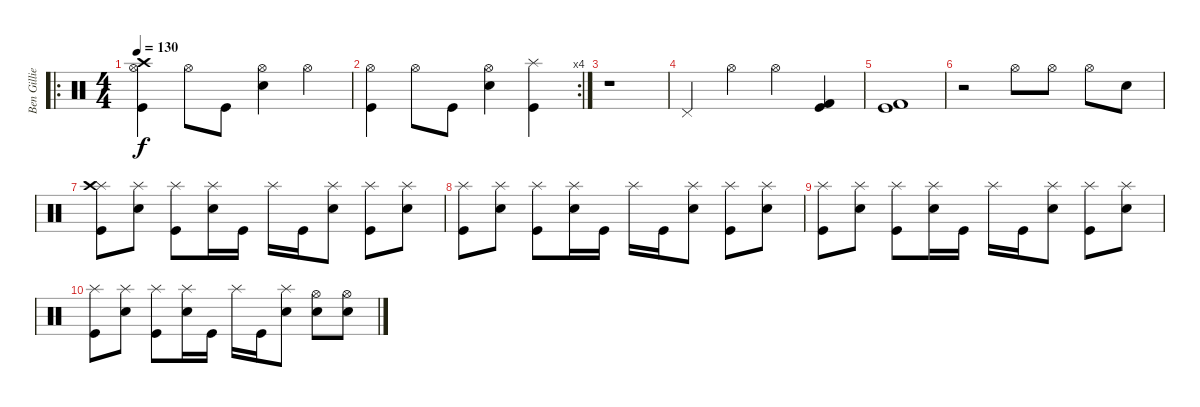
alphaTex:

\track ("Ben Gillies (Drums)" "Ben Gillie") {instrument percussion}
\staff {score}
\articulation defaults
\ro
\ts (4 4)
\tempo 130
\clef neutral
\ks c
("Crash high (hit)" "Hi-Hat (open)" "Kick (hit)").4{dy f} "Hi-Hat (open)".8 "Kick (hit)".8 ("Electric Snare (hit)" "Hi-Hat (open)").4 "Hi-Hat (open)".4 |
\rc 4
("Hi-Hat (open)" "Kick (hit)").4 "Hi-Hat (open)".8 "Kick (hit)".8 ("Electric Snare (hit)" "Hi-Hat (open)").4 ("Splash (hit)" "Kick (hit)").4 |
r.1 |
"Pedal Hi-Hat (hit)".4 "Hi-Hat (open)".4 "Hi-Hat (open)".4 ("Kick (hit) 2" "Kick (hit)").4 |
("Kick (hit) 2" "Kick (hit)").1 |
r.2 "Hi-Hat (open)".8 "Hi-Hat (open)".8 "Hi-Hat (open)".8 "Electric Snare (hit)".8 |
("Splash (hit)" "Kick (hit)" "Crash high (hit)").8 ("Electric Snare (hit)" "Splash (hit)").8 ("Splash (hit)" "Kick (hit)").8 ("Electric Snare (hit)" "Splash (hit)").16 "Kick (hit)".16 "Splash (hit)".16 "Kick (hit)".16 ("Electric Snare (hit)" "Splash (hit)").8 ("Splash (hit)" "Kick (hit)").8 ("Electric Snare (hit)" "Splash (hit)").8 |
("Splash (hit)" "Kick (hit)").8 ("Electric Snare (hit)" "Splash (hit)").8 ("Splash (hit)" "Kick (hit)").8 ("Electric Snare (hit)" "Splash (hit)").16 "Kick (hit)".16 "Splash (hit)".16 "Kick (hit)".16 ("Electric Snare (hit)" "Splash (hit)").8 ("Splash (hit)" "Kick (hit)").8 ("Electric Snare (hit)" "Splash (hit)").8 |
("Splash (hit)" "Kick (hit)").8 ("Electric Snare (hit)" "Splash (hit)").8 ("Splash (hit)" "Kick (hit)").8 ("Electric Snare (hit)" "Splash (hit)").16 "Kick (hit)".16 "Splash (hit)".16 "Kick (hit)".16 ("Electric Snare (hit)" "Splash (hit)").8 ("Splash (hit)" "Kick (hit)").8 ("Electric Snare (hit)" "Splash (hit)").8 |
("Splash (hit)" "Kick (hit)").8 ("Electric Snare (hit)" "Splash (hit)").8 ("Splash (hit)" "Kick (hit)").8 ("Electric Snare (hit)" "Splash (hit)").16 "Kick (hit)".16 "Splash (hit)".16 "Kick (hit)".16 ("Electric Snare (hit)" "Splash (hit)").8 ("Hi-Hat (open)" "Snare (hit) 2").8 ("Hi-Hat (open)" "Snare (hit) 2").8
